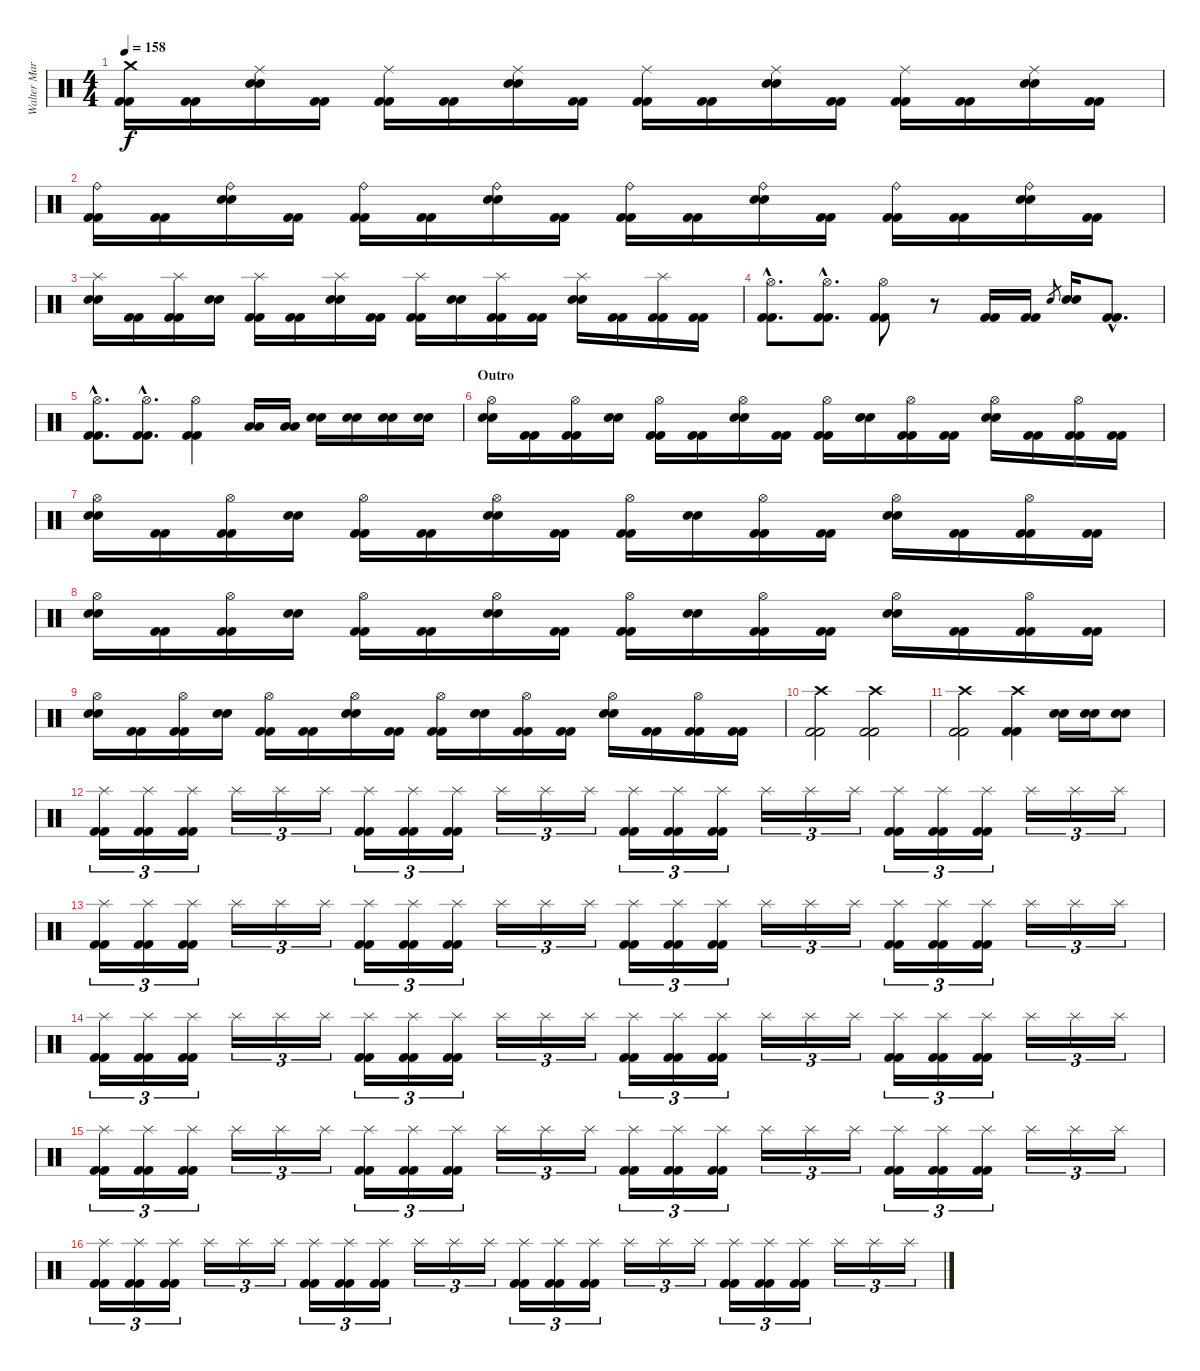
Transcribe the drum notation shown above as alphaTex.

\track ("Walter Martinez (Bateria)" "Walter Mar") {instrument percussion}
\staff {score}
\articulation defaults
\ts (4 4)
\tempo 158
\clef neutral
\ks c
("Crash medium (hit)" "Kick (hit) 2" "Kick (hit) 2").16{dy f} ("Kick (hit) 2" "Kick (hit) 2").16 ("Ride (middle)" "Snare (hit) 2" "Snare (hit) 2").16 ("Kick (hit) 2" "Kick (hit) 2").16 ("Ride (middle)" "Kick (hit) 2" "Kick (hit) 2").16 ("Kick (hit) 2" "Kick (hit) 2").16 ("Ride (middle)" "Snare (hit) 2" "Snare (hit) 2").16 ("Kick (hit) 2" "Kick (hit) 2").16 ("Ride (middle)" "Kick (hit) 2" "Kick (hit) 2").16 ("Kick (hit) 2" "Kick (hit) 2").16 ("Ride (middle)" "Snare (hit) 2" "Snare (hit) 2").16 ("Kick (hit) 2" "Kick (hit) 2").16 ("Ride (middle)" "Kick (hit) 2" "Kick (hit) 2").16 ("Kick (hit) 2" "Kick (hit) 2").16 ("Ride (middle)" "Snare (hit) 2" "Snare (hit) 2").16 ("Kick (hit) 2" "Kick (hit) 2").16 |
("Ride (bell)" "Kick (hit) 2" "Kick (hit) 2").16 ("Kick (hit) 2" "Kick (hit) 2").16 ("Ride (bell)" "Snare (hit) 2" "Snare (hit) 2").16 ("Kick (hit) 2" "Kick (hit) 2").16 ("Ride (bell)" "Kick (hit) 2" "Kick (hit) 2").16 ("Kick (hit) 2" "Kick (hit) 2").16 ("Ride (bell)" "Snare (hit) 2" "Snare (hit) 2").16 ("Kick (hit) 2" "Kick (hit) 2").16 ("Ride (bell)" "Kick (hit) 2" "Kick (hit) 2").16 ("Kick (hit) 2" "Kick (hit) 2").16 ("Ride (bell)" "Snare (hit) 2" "Snare (hit) 2").16 ("Kick (hit) 2" "Kick (hit) 2").16 ("Ride (bell)" "Kick (hit) 2" "Kick (hit) 2").16 ("Kick (hit) 2" "Kick (hit) 2").16 ("Ride (bell)" "Snare (hit) 2" "Snare (hit) 2").16 ("Kick (hit) 2" "Kick (hit) 2").16 |
("Splash (hit)" "Snare (hit) 2" "Snare (hit) 2").16 ("Kick (hit) 2" "Kick (hit) 2").16 ("Splash (hit)" "Kick (hit) 2" "Kick (hit) 2").16 ("Snare (hit) 2" "Snare (hit) 2").16 ("Splash (hit)" "Kick (hit) 2" "Kick (hit) 2").16 ("Kick (hit) 2" "Kick (hit) 2").16 ("Splash (hit)" "Snare (hit) 2" "Snare (hit) 2").16 ("Kick (hit) 2" "Kick (hit) 2").16 ("Splash (hit)" "Kick (hit) 2" "Kick (hit) 2").16 ("Snare (hit) 2" "Snare (hit) 2").16 ("Splash (hit)" "Kick (hit) 2" "Kick (hit) 2").16 ("Kick (hit) 2" "Kick (hit) 2").16 ("Splash (hit)" "Snare (hit) 2" "Snare (hit) 2").16 ("Kick (hit) 2" "Kick (hit) 2").16 ("Splash (hit)" "Kick (hit) 2" "Kick (hit) 2").16 ("Kick (hit) 2" "Kick (hit) 2").16 |
("Hi-Hat (open)"{hac} "Kick (hit) 2"{hac} "Kick (hit) 2"{hac}).8{d} ("Hi-Hat (open)"{hac} "Kick (hit) 2"{hac} "Kick (hit) 2"{hac}).8{d} ("Hi-Hat (open)" "Kick (hit) 2" "Kick (hit) 2").8 r.8 ("Kick (hit) 2" "Kick (hit) 2").16 ("Kick (hit) 2" "Kick (hit) 2").16 "Snare (hit) 2".8{gr} ("Snare (hit) 2" "Snare (hit) 2").16 ("Kick (hit) 2"{hac} "Kick (hit) 2"{hac}).8{d} |
("Hi-Hat (open)"{hac} "Kick (hit) 2"{hac} "Kick (hit) 2"{hac}).8{d} ("Hi-Hat (open)"{hac} "Kick (hit) 2"{hac} "Kick (hit) 2"{hac}).8{d} ("Hi-Hat (open)" "Kick (hit) 2" "Kick (hit) 2").4 ("Low Tom (hit)" "Low Tom (hit)").16 ("Low Tom (hit)" "Low Tom (hit)").16 ("Snare (hit) 2" "Snare (hit) 2").16 ("Snare (hit) 2" "Snare (hit) 2").16 ("Snare (hit) 2" "Snare (hit) 2").16 ("Snare (hit) 2" "Snare (hit) 2").16 |
\section ("" "Outro")
("Hi-Hat (open)" "Snare (hit) 2" "Snare (hit) 2").16 ("Kick (hit) 2" "Kick (hit) 2").16 ("Hi-Hat (open)" "Kick (hit) 2" "Kick (hit) 2").16 ("Snare (hit) 2" "Snare (hit) 2").16 ("Hi-Hat (open)" "Kick (hit) 2" "Kick (hit) 2").16 ("Kick (hit) 2" "Kick (hit) 2").16 ("Hi-Hat (open)" "Snare (hit) 2" "Snare (hit) 2").16 ("Kick (hit) 2" "Kick (hit) 2").16 ("Hi-Hat (open)" "Kick (hit) 2" "Kick (hit) 2").16 ("Snare (hit) 2" "Snare (hit) 2").16 ("Hi-Hat (open)" "Kick (hit) 2" "Kick (hit) 2").16 ("Kick (hit) 2" "Kick (hit) 2").16 ("Hi-Hat (open)" "Snare (hit) 2" "Snare (hit) 2").16 ("Kick (hit) 2" "Kick (hit) 2").16 ("Hi-Hat (open)" "Kick (hit) 2" "Kick (hit) 2").16 ("Kick (hit) 2" "Kick (hit) 2").16 |
("Hi-Hat (open)" "Snare (hit) 2" "Snare (hit) 2").16 ("Kick (hit) 2" "Kick (hit) 2").16 ("Hi-Hat (open)" "Kick (hit) 2" "Kick (hit) 2").16 ("Snare (hit) 2" "Snare (hit) 2").16 ("Hi-Hat (open)" "Kick (hit) 2" "Kick (hit) 2").16 ("Kick (hit) 2" "Kick (hit) 2").16 ("Hi-Hat (open)" "Snare (hit) 2" "Snare (hit) 2").16 ("Kick (hit) 2" "Kick (hit) 2").16 ("Hi-Hat (open)" "Kick (hit) 2" "Kick (hit) 2").16 ("Snare (hit) 2" "Snare (hit) 2").16 ("Hi-Hat (open)" "Kick (hit) 2" "Kick (hit) 2").16 ("Kick (hit) 2" "Kick (hit) 2").16 ("Hi-Hat (open)" "Snare (hit) 2" "Snare (hit) 2").16 ("Kick (hit) 2" "Kick (hit) 2").16 ("Hi-Hat (open)" "Kick (hit) 2" "Kick (hit) 2").16 ("Kick (hit) 2" "Kick (hit) 2").16 |
("Hi-Hat (open)" "Snare (hit) 2" "Snare (hit) 2").16 ("Kick (hit) 2" "Kick (hit) 2").16 ("Hi-Hat (open)" "Kick (hit) 2" "Kick (hit) 2").16 ("Snare (hit) 2" "Snare (hit) 2").16 ("Hi-Hat (open)" "Kick (hit) 2" "Kick (hit) 2").16 ("Kick (hit) 2" "Kick (hit) 2").16 ("Hi-Hat (open)" "Snare (hit) 2" "Snare (hit) 2").16 ("Kick (hit) 2" "Kick (hit) 2").16 ("Hi-Hat (open)" "Kick (hit) 2" "Kick (hit) 2").16 ("Snare (hit) 2" "Snare (hit) 2").16 ("Hi-Hat (open)" "Kick (hit) 2" "Kick (hit) 2").16 ("Kick (hit) 2" "Kick (hit) 2").16 ("Hi-Hat (open)" "Snare (hit) 2" "Snare (hit) 2").16 ("Kick (hit) 2" "Kick (hit) 2").16 ("Hi-Hat (open)" "Kick (hit) 2" "Kick (hit) 2").16 ("Kick (hit) 2" "Kick (hit) 2").16 |
("Hi-Hat (open)" "Snare (hit) 2" "Snare (hit) 2").16 ("Kick (hit) 2" "Kick (hit) 2").16 ("Hi-Hat (open)" "Kick (hit) 2" "Kick (hit) 2").16 ("Snare (hit) 2" "Snare (hit) 2").16 ("Hi-Hat (open)" "Kick (hit) 2" "Kick (hit) 2").16 ("Kick (hit) 2" "Kick (hit) 2").16 ("Hi-Hat (open)" "Snare (hit) 2" "Snare (hit) 2").16 ("Kick (hit) 2" "Kick (hit) 2").16 ("Hi-Hat (open)" "Kick (hit) 2" "Kick (hit) 2").16 ("Snare (hit) 2" "Snare (hit) 2").16 ("Hi-Hat (open)" "Kick (hit) 2" "Kick (hit) 2").16 ("Kick (hit) 2" "Kick (hit) 2").16 ("Hi-Hat (open)" "Snare (hit) 2" "Snare (hit) 2").16 ("Kick (hit) 2" "Kick (hit) 2").16 ("Hi-Hat (open)" "Kick (hit) 2" "Kick (hit) 2").16 ("Kick (hit) 2" "Kick (hit) 2").16 |
("Crash high (hit)" "Kick (hit) 2" "Kick (hit) 2").2 ("Crash high (hit)" "Kick (hit) 2" "Kick (hit) 2").2 |
("Crash high (hit)" "Kick (hit) 2" "Kick (hit) 2").2 ("Crash high (hit)" "Kick (hit) 2" "Kick (hit) 2").4 ("Snare (hit) 2" "Snare (hit) 2").16 ("Snare (hit) 2" "Snare (hit) 2").16 ("Snare (hit) 2" "Snare (hit) 2").8 |
("Splash (hit)" "Kick (hit) 2" "Kick (hit) 2").16{tu (3 2)} ("Splash (hit)" "Kick (hit) 2" "Kick (hit) 2").16{tu (3 2)} ("Splash (hit)" "Kick (hit) 2" "Kick (hit) 2").16{tu (3 2)} "Splash (hit)".16{tu (3 2)} "Splash (hit)".16{tu (3 2)} "Splash (hit)".16{tu (3 2)} ("Splash (hit)" "Kick (hit) 2" "Kick (hit) 2").16{tu (3 2)} ("Splash (hit)" "Kick (hit) 2" "Kick (hit) 2").16{tu (3 2)} ("Splash (hit)" "Kick (hit) 2" "Kick (hit) 2").16{tu (3 2)} "Splash (hit)".16{tu (3 2)} "Splash (hit)".16{tu (3 2)} "Splash (hit)".16{tu (3 2)} ("Splash (hit)" "Kick (hit) 2" "Kick (hit) 2").16{tu (3 2)} ("Splash (hit)" "Kick (hit) 2" "Kick (hit) 2").16{tu (3 2)} ("Splash (hit)" "Kick (hit) 2" "Kick (hit) 2").16{tu (3 2)} "Splash (hit)".16{tu (3 2)} "Splash (hit)".16{tu (3 2)} "Splash (hit)".16{tu (3 2)} ("Splash (hit)" "Kick (hit) 2" "Kick (hit) 2").16{tu (3 2)} ("Splash (hit)" "Kick (hit) 2" "Kick (hit) 2").16{tu (3 2)} ("Splash (hit)" "Kick (hit) 2" "Kick (hit) 2").16{tu (3 2)} "Splash (hit)".16{tu (3 2)} "Splash (hit)".16{tu (3 2)} "Splash (hit)".16{tu (3 2)} |
("Splash (hit)" "Kick (hit) 2" "Kick (hit) 2").16{tu (3 2)} ("Splash (hit)" "Kick (hit) 2" "Kick (hit) 2").16{tu (3 2)} ("Splash (hit)" "Kick (hit) 2" "Kick (hit) 2").16{tu (3 2)} "Splash (hit)".16{tu (3 2)} "Splash (hit)".16{tu (3 2)} "Splash (hit)".16{tu (3 2)} ("Splash (hit)" "Kick (hit) 2" "Kick (hit) 2").16{tu (3 2)} ("Splash (hit)" "Kick (hit) 2" "Kick (hit) 2").16{tu (3 2)} ("Splash (hit)" "Kick (hit) 2" "Kick (hit) 2").16{tu (3 2)} "Splash (hit)".16{tu (3 2)} "Splash (hit)".16{tu (3 2)} "Splash (hit)".16{tu (3 2)} ("Splash (hit)" "Kick (hit) 2" "Kick (hit) 2").16{tu (3 2)} ("Splash (hit)" "Kick (hit) 2" "Kick (hit) 2").16{tu (3 2)} ("Splash (hit)" "Kick (hit) 2" "Kick (hit) 2").16{tu (3 2)} "Splash (hit)".16{tu (3 2)} "Splash (hit)".16{tu (3 2)} "Splash (hit)".16{tu (3 2)} ("Splash (hit)" "Kick (hit) 2" "Kick (hit) 2").16{tu (3 2)} ("Splash (hit)" "Kick (hit) 2" "Kick (hit) 2").16{tu (3 2)} ("Splash (hit)" "Kick (hit) 2" "Kick (hit) 2").16{tu (3 2)} "Splash (hit)".16{tu (3 2)} "Splash (hit)".16{tu (3 2)} "Splash (hit)".16{tu (3 2)} |
("Splash (hit)" "Kick (hit) 2" "Kick (hit) 2").16{tu (3 2)} ("Splash (hit)" "Kick (hit) 2" "Kick (hit) 2").16{tu (3 2)} ("Splash (hit)" "Kick (hit) 2" "Kick (hit) 2").16{tu (3 2)} "Splash (hit)".16{tu (3 2)} "Splash (hit)".16{tu (3 2)} "Splash (hit)".16{tu (3 2)} ("Splash (hit)" "Kick (hit) 2" "Kick (hit) 2").16{tu (3 2)} ("Splash (hit)" "Kick (hit) 2" "Kick (hit) 2").16{tu (3 2)} ("Splash (hit)" "Kick (hit) 2" "Kick (hit) 2").16{tu (3 2)} "Splash (hit)".16{tu (3 2)} "Splash (hit)".16{tu (3 2)} "Splash (hit)".16{tu (3 2)} ("Splash (hit)" "Kick (hit) 2" "Kick (hit) 2").16{tu (3 2)} ("Splash (hit)" "Kick (hit) 2" "Kick (hit) 2").16{tu (3 2)} ("Splash (hit)" "Kick (hit) 2" "Kick (hit) 2").16{tu (3 2)} "Splash (hit)".16{tu (3 2)} "Splash (hit)".16{tu (3 2)} "Splash (hit)".16{tu (3 2)} ("Splash (hit)" "Kick (hit) 2" "Kick (hit) 2").16{tu (3 2)} ("Splash (hit)" "Kick (hit) 2" "Kick (hit) 2").16{tu (3 2)} ("Splash (hit)" "Kick (hit) 2" "Kick (hit) 2").16{tu (3 2)} "Splash (hit)".16{tu (3 2)} "Splash (hit)".16{tu (3 2)} "Splash (hit)".16{tu (3 2)} |
("Splash (hit)" "Kick (hit) 2" "Kick (hit) 2").16{tu (3 2)} ("Splash (hit)" "Kick (hit) 2" "Kick (hit) 2").16{tu (3 2)} ("Splash (hit)" "Kick (hit) 2" "Kick (hit) 2").16{tu (3 2)} "Splash (hit)".16{tu (3 2)} "Splash (hit)".16{tu (3 2)} "Splash (hit)".16{tu (3 2)} ("Splash (hit)" "Kick (hit) 2" "Kick (hit) 2").16{tu (3 2)} ("Splash (hit)" "Kick (hit) 2" "Kick (hit) 2").16{tu (3 2)} ("Splash (hit)" "Kick (hit) 2" "Kick (hit) 2").16{tu (3 2)} "Splash (hit)".16{tu (3 2)} "Splash (hit)".16{tu (3 2)} "Splash (hit)".16{tu (3 2)} ("Splash (hit)" "Kick (hit) 2" "Kick (hit) 2").16{tu (3 2)} ("Splash (hit)" "Kick (hit) 2" "Kick (hit) 2").16{tu (3 2)} ("Splash (hit)" "Kick (hit) 2" "Kick (hit) 2").16{tu (3 2)} "Splash (hit)".16{tu (3 2)} "Splash (hit)".16{tu (3 2)} "Splash (hit)".16{tu (3 2)} ("Splash (hit)" "Kick (hit) 2" "Kick (hit) 2").16{tu (3 2)} ("Splash (hit)" "Kick (hit) 2" "Kick (hit) 2").16{tu (3 2)} ("Splash (hit)" "Kick (hit) 2" "Kick (hit) 2").16{tu (3 2)} "Splash (hit)".16{tu (3 2)} "Splash (hit)".16{tu (3 2)} "Splash (hit)".16{tu (3 2)} |
("Splash (hit)" "Kick (hit) 2" "Kick (hit) 2").16{tu (3 2)} ("Splash (hit)" "Kick (hit) 2" "Kick (hit) 2").16{tu (3 2)} ("Splash (hit)" "Kick (hit) 2" "Kick (hit) 2").16{tu (3 2)} "Splash (hit)".16{tu (3 2)} "Splash (hit)".16{tu (3 2)} "Splash (hit)".16{tu (3 2)} ("Splash (hit)" "Kick (hit) 2" "Kick (hit) 2").16{tu (3 2)} ("Splash (hit)" "Kick (hit) 2" "Kick (hit) 2").16{tu (3 2)} ("Splash (hit)" "Kick (hit) 2" "Kick (hit) 2").16{tu (3 2)} "Splash (hit)".16{tu (3 2)} "Splash (hit)".16{tu (3 2)} "Splash (hit)".16{tu (3 2)} ("Splash (hit)" "Kick (hit) 2" "Kick (hit) 2").16{tu (3 2)} ("Splash (hit)" "Kick (hit) 2" "Kick (hit) 2").16{tu (3 2)} ("Splash (hit)" "Kick (hit) 2" "Kick (hit) 2").16{tu (3 2)} "Splash (hit)".16{tu (3 2)} "Splash (hit)".16{tu (3 2)} "Splash (hit)".16{tu (3 2)} ("Splash (hit)" "Kick (hit) 2" "Kick (hit) 2").16{tu (3 2)} ("Splash (hit)" "Kick (hit) 2" "Kick (hit) 2").16{tu (3 2)} ("Splash (hit)" "Kick (hit) 2" "Kick (hit) 2").16{tu (3 2)} "Splash (hit)".16{tu (3 2)} "Splash (hit)".16{tu (3 2)} "Splash (hit)".16{tu (3 2)}
